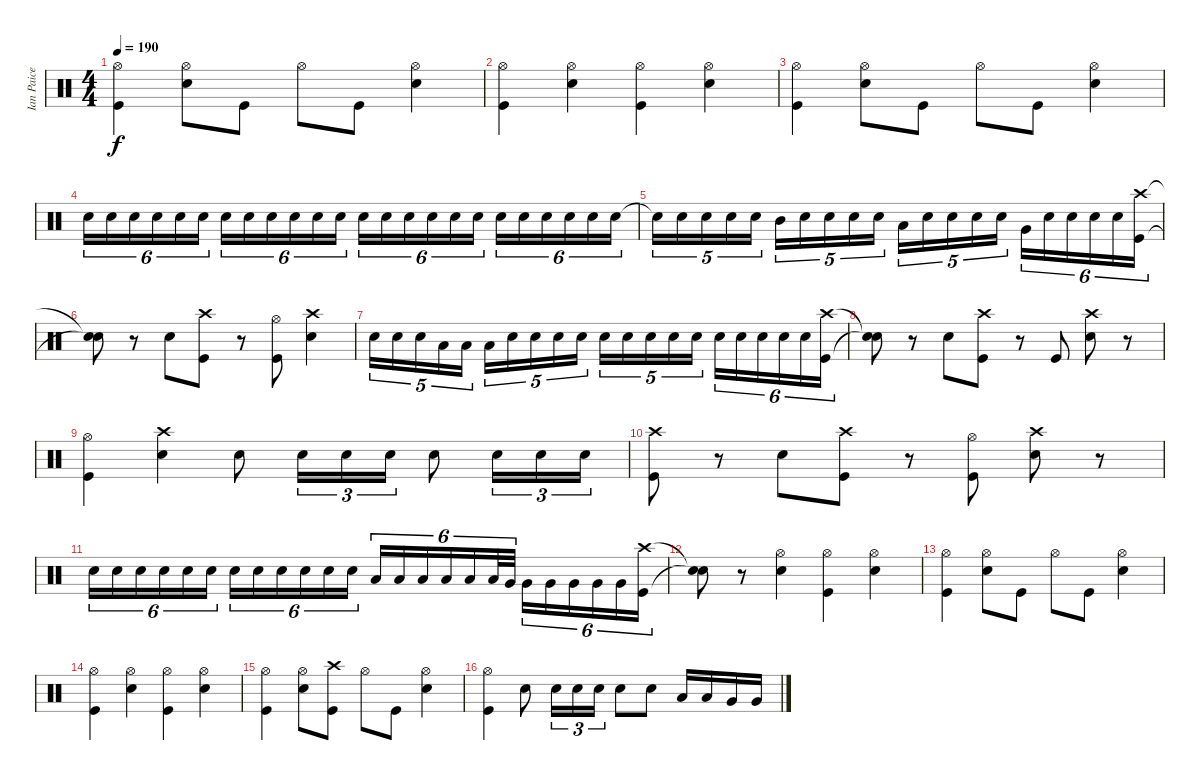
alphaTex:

\track ("Ian Paice" "Ian Paice") {instrument percussion}
\staff {score}
\articulation defaults
\ts (4 4)
\tempo 190
\clef neutral
\ks c
("Kick (hit)" "Hi-Hat (open)").4{dy f} ("Hi-Hat (open)" "Snare (hit) 2").8 "Kick (hit)".8 "Hi-Hat (open)".8 "Kick (hit)".8 ("Hi-Hat (open)" "Snare (hit) 2").4 |
("Hi-Hat (open)" "Kick (hit)").4 ("Snare (hit) 2" "Hi-Hat (open)").4 ("Hi-Hat (open)" "Kick (hit)").4 ("Hi-Hat (open)" "Snare (hit) 2").4 |
("Kick (hit)" "Hi-Hat (open)").4 ("Snare (hit) 2" "Hi-Hat (open)").8 "Kick (hit)".8 "Hi-Hat (open)".8 "Kick (hit)".8 ("Snare (hit) 2" "Hi-Hat (open)").4 |
"Snare (hit) 2".16{tu (6 4)} "Snare (hit) 2".16{tu (6 4)} "Snare (hit) 2".16{tu (6 4)} "Snare (hit) 2".16{tu (6 4)} "Snare (hit) 2".16{tu (6 4)} "Snare (hit) 2".16{tu (6 4)} "Snare (hit) 2".16{tu (6 4)} "Snare (hit) 2".16{tu (6 4)} "Snare (hit) 2".16{tu (6 4)} "Snare (hit) 2".16{tu (6 4)} "Snare (hit) 2".16{tu (6 4)} "Snare (hit) 2".16{tu (6 4)} "Snare (hit) 2".16{tu (6 4)} "Snare (hit) 2".16{tu (6 4)} "Snare (hit) 2".16{tu (6 4)} "Snare (hit) 2".16{tu (6 4)} "Snare (hit) 2".16{tu (6 4)} "Snare (hit) 2".16{tu (6 4)} "Snare (hit) 2".16{tu (6 4)} "Snare (hit) 2".16{tu (6 4)} "Snare (hit) 2".16{tu (6 4)} "Snare (hit) 2".16{tu (6 4)} "Snare (hit) 2".16{tu (6 4)} "Snare (hit) 2".16{tu (6 4)} |
"Snare (hit)"{t}.16{tu (5 4)} "Snare (hit) 2".16{tu (5 4)} "Snare (hit) 2".16{tu (5 4)} "Snare (hit) 2".16{tu (5 4)} "Snare (hit) 2".16{tu (5 4)} "Mid Tom (hit)".16{tu (5 4)} "Snare (hit) 2".16{tu (5 4)} "Snare (hit) 2".16{tu (5 4)} "Snare (hit) 2".16{tu (5 4)} "Snare (hit) 2".16{tu (5 4)} "Low Tom (hit)".16{tu (5 4)} "Snare (hit) 2".16{tu (5 4)} "Snare (hit) 2".16{tu (5 4)} "Snare (hit) 2".16{tu (5 4)} "Snare (hit) 2".16{tu (5 4)} "Very Low Tom (hit)".16{tu (6 4)} "Snare (hit) 2".16{tu (6 4)} "Snare (hit) 2".16{tu (6 4)} "Snare (hit) 2".16{tu (6 4)} "Snare (hit) 2".16{tu (6 4)} ("Crash high (hit)" "Kick (hit)").16{tu (6 4)} |
("Snare (hit)"{t} "Snare (hit)"{t}).8 r.8 "Snare (hit) 2".8 ("Crash high (hit)" "Kick (hit)").8 r.8 ("Hi-Hat (open)" "Kick (hit)").8 ("Crash high (hit)" "Snare (hit) 2").4 |
"Snare (hit) 2".16{tu (5 4)} "Snare (hit) 2".16{tu (5 4)} "Snare (hit) 2".16{tu (5 4)} "Low Tom (hit)".16{tu (5 4)} "Low Tom (hit)".16{tu (5 4)} "Low Tom (hit)".16{tu (5 4)} "Snare (hit) 2".16{tu (5 4)} "Snare (hit) 2".16{tu (5 4)} "Snare (hit) 2".16{tu (5 4)} "Snare (hit) 2".16{tu (5 4)} "Snare (hit) 2".16{tu (5 4)} "Snare (hit) 2".16{tu (5 4)} "Snare (hit) 2".16{tu (5 4)} "Snare (hit) 2".16{tu (5 4)} "Snare (hit) 2".16{tu (5 4)} "Snare (hit) 2".16{tu (6 4)} "Snare (hit) 2".16{tu (6 4)} "Snare (hit) 2".16{tu (6 4)} "Snare (hit) 2".16{tu (6 4)} "Snare (hit) 2".16{tu (6 4)} ("Kick (hit)" "Crash high (hit)").16{tu (6 4)} |
("Snare (hit)"{t} "Snare (hit)"{t}).8 r.8 "Snare (hit) 2".8 ("Crash high (hit)" "Kick (hit)").8 r.8 "Kick (hit)".8 ("Crash high (hit)" "Snare (hit) 2").8 r.8 |
("Kick (hit)" "Hi-Hat (open)").4 ("Crash high (hit)" "Snare (hit) 2").4 "Snare (hit) 2".8 "Snare (hit) 2".16{tu (3 2)} "Snare (hit) 2".16{tu (3 2)} "Snare (hit) 2".16{tu (3 2)} "Snare (hit) 2".8 "Snare (hit) 2".16{tu (3 2)} "Snare (hit) 2".16{tu (3 2)} "Snare (hit) 2".16{tu (3 2)} |
("Kick (hit)" "Crash high (hit)").8 r.8 "Snare (hit) 2".8 ("Kick (hit)" "Crash high (hit)").8 r.8 ("Hi-Hat (open)" "Kick (hit)").8 ("Snare (hit) 2" "Crash high (hit)").8 r.8 |
"Snare (hit) 2".16{tu (6 4)} "Snare (hit) 2".16{tu (6 4)} "Snare (hit) 2".16{tu (6 4)} "Snare (hit) 2".16{tu (6 4)} "Snare (hit) 2".16{tu (6 4)} "Snare (hit) 2".16{tu (6 4)} "Snare (hit) 2".16{tu (6 4)} "Snare (hit) 2".16{tu (6 4)} "Snare (hit) 2".16{tu (6 4)} "Snare (hit) 2".16{tu (6 4)} "Snare (hit) 2".16{tu (6 4)} "Snare (hit) 2".16{tu (6 4)} "Low Tom (hit)".16{tu (6 4)} "Low Tom (hit)".16{tu (6 4)} "Low Tom (hit)".16{tu (6 4)} "Low Tom (hit)".16{tu (6 4)} "Low Tom (hit)".16{tu (6 4)} "Low Tom (hit)".32{tu (6 4)} "Very Low Tom (hit)".32{tu (6 4)} "Very Low Tom (hit)".16{tu (6 4)} "Very Low Tom (hit)".16{tu (6 4)} "Very Low Tom (hit)".16{tu (6 4)} "Very Low Tom (hit)".16{tu (6 4)} "Very Low Tom (hit)".16{tu (6 4)} ("Crash high (hit)" "Kick (hit)").16{tu (6 4)} |
("Snare (hit)"{t} "Snare (hit)"{t}).8 r.8 ("Hi-Hat (open)" "Snare (hit) 2").4 ("Hi-Hat (open)" "Kick (hit)").4 ("Hi-Hat (open)" "Snare (hit) 2").4 |
("Hi-Hat (open)" "Kick (hit)").4 ("Hi-Hat (open)" "Snare (hit) 2").8 "Kick (hit)".8 "Hi-Hat (open)".8 "Kick (hit)".8 ("Snare (hit) 2" "Hi-Hat (open)").4 |
("Kick (hit)" "Hi-Hat (open)").4 ("Snare (hit) 2" "Hi-Hat (open)").4 ("Hi-Hat (open)" "Kick (hit)").4 ("Snare (hit) 2" "Hi-Hat (open)").4 |
("Kick (hit)" "Hi-Hat (open)").4 ("Snare (hit) 2" "Hi-Hat (open)").8 ("Kick (hit)" "Crash high (hit)").8 "Hi-Hat (open)".8 "Kick (hit)".8 ("Snare (hit) 2" "Hi-Hat (open)").4 |
("Hi-Hat (open)" "Kick (hit)").4 "Snare (hit) 2".8 "Snare (hit) 2".16{tu (3 2)} "Snare (hit) 2".16{tu (3 2)} "Snare (hit) 2".16{tu (3 2)} "Snare (hit) 2".8 "Snare (hit) 2".8 "Low Tom (hit)".16 "Low Tom (hit)".16 "Very Low Tom (hit)".16 "Very Low Tom (hit)".16
